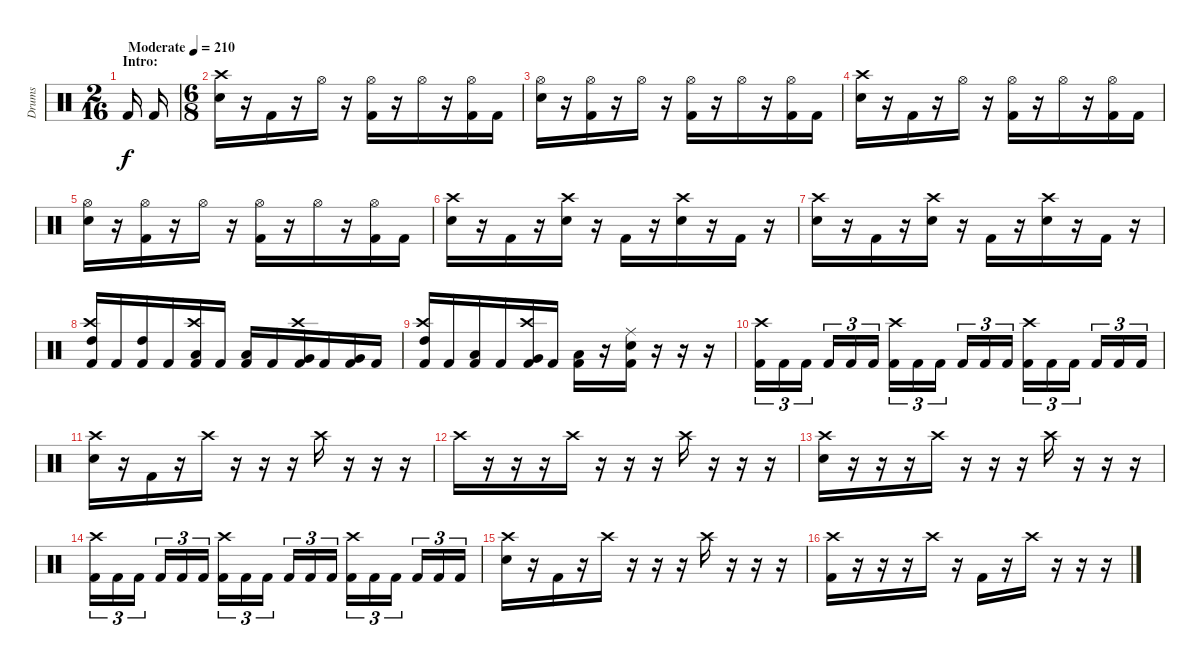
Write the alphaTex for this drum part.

\track ("Drums" "Drums") {instrument percussion}
\staff {score}
\articulation defaults
\ts (2 16)
\section ("" "Intro:")
\tempo (210 "Moderate")
\clef neutral
\ks c "Kick (hit) 2".16{dy f} "Kick (hit) 2".16
|
\ts (6 8)
("Crash high (hit)" "Electric Snare (hit)").16 r.16 "Kick (hit) 2".16 r.16 "Hi-Hat (open)".16 r.16 ("Hi-Hat (open)" "Kick (hit) 2").16 r.16 "Hi-Hat (open)".16 r.16 ("Hi-Hat (open)" "Kick (hit) 2").16 "Kick (hit) 2".16 |
("Hi-Hat (open)" "Electric Snare (hit)").16 r.16 ("Hi-Hat (open)" "Kick (hit) 2").16 r.16 "Hi-Hat (open)".16 r.16 ("Hi-Hat (open)" "Kick (hit) 2").16 r.16 "Hi-Hat (open)".16 r.16 ("Hi-Hat (open)" "Kick (hit) 2").16 "Kick (hit) 2".16 |
("Crash high (hit)" "Electric Snare (hit)").16 r.16 "Kick (hit) 2".16 r.16 "Hi-Hat (open)".16 r.16 ("Hi-Hat (open)" "Kick (hit) 2").16 r.16 "Hi-Hat (open)".16 r.16 ("Hi-Hat (open)" "Kick (hit) 2").16 "Kick (hit) 2".16 |
("Hi-Hat (open)" "Electric Snare (hit)").16 r.16 ("Hi-Hat (open)" "Kick (hit) 2").16 r.16 "Hi-Hat (open)".16 r.16 ("Hi-Hat (open)" "Kick (hit) 2").16 r.16 "Hi-Hat (open)".16 r.16 ("Hi-Hat (open)" "Kick (hit) 2").16 "Kick (hit) 2".16 |
("Crash high (hit)" "Electric Snare (hit)").16 r.16 "Kick (hit) 2".16 r.16 ("Crash high (hit)" "Electric Snare (hit)").16 r.16 "Kick (hit) 2".16 r.16 ("Crash high (hit)" "Electric Snare (hit)").16 r.16 "Kick (hit) 2".16 r.16 |
("Crash high (hit)" "Electric Snare (hit)").16 r.16 "Kick (hit) 2".16 r.16 ("Crash high (hit)" "Electric Snare (hit)").16 r.16 "Kick (hit) 2".16 r.16 ("Crash high (hit)" "Electric Snare (hit)").16 r.16 "Kick (hit) 2".16 r.16 |
("Crash high (hit)" "High Tom (hit)" "Kick (hit) 2").16 "Kick (hit) 2".16 ("High Tom (hit)" "Kick (hit) 2").16 "Kick (hit) 2".16 ("Crash high (hit)" "Low Tom (hit)" "Kick (hit) 2").16 "Kick (hit) 2".16 ("Low Tom (hit)" "Kick (hit) 2").16 "Kick (hit) 2".16 ("Crash high (hit)" "Very Low Tom (hit)" "Kick (hit) 2").16 "Kick (hit) 2".16 ("Very Low Tom (hit)" "Kick (hit) 2").16 "Kick (hit) 2".16 |
("Crash high (hit)" "High Tom (hit)" "Kick (hit) 2").16 "Kick (hit) 2".16 ("Low Tom (hit)" "Kick (hit) 2").16 "Kick (hit) 2".16 ("Crash high (hit)" "Very Low Tom (hit)" "Kick (hit) 2").16 "Kick (hit) 2".16 ("Low Floor Tom (hit)" "Kick (hit) 2").16 r.16 ("Ride (middle)" "Electric Snare (hit)" "Kick (hit) 2").16 r.16 r.16 r.16 |
("Crash high (hit)" "Kick (hit) 2").16{tu (3 2)} "Kick (hit) 2".16{tu (3 2)} "Kick (hit) 2".16{tu (3 2) beam splitsecondary} "Kick (hit) 2".16{tu (3 2)} "Kick (hit) 2".16{tu (3 2)} "Kick (hit) 2".16{tu (3 2) beam splitsecondary} ("Crash high (hit)" "Kick (hit) 2").16{tu (3 2)} "Kick (hit) 2".16{tu (3 2)} "Kick (hit) 2".16{tu (3 2)} "Kick (hit) 2".16{tu (3 2)} "Kick (hit) 2".16{tu (3 2)} "Kick (hit) 2".16{tu (3 2) beam splitsecondary} ("Crash high (hit)" "Kick (hit) 2").16{tu (3 2)} "Kick (hit) 2".16{tu (3 2)} "Kick (hit) 2".16{tu (3 2) beam splitsecondary} "Kick (hit) 2".16{tu (3 2)} "Kick (hit) 2".16{tu (3 2)} "Kick (hit) 2".16{tu (3 2)} |
("Crash high (hit)" "Electric Snare (hit)").16 r.16 "Kick (hit) 2".16 r.16 "Crash high (hit)".16 r.16 r.16 r.16 "Crash high (hit)".16 r.16 r.16 r.16 |
"Crash high (hit)".16 r.16 r.16 r.16 "Crash high (hit)".16 r.16 r.16 r.16 "Crash high (hit)".16 r.16 r.16 r.16 |
("Crash high (hit)" "Electric Snare (hit)").16 r.16 r.16 r.16 "Crash high (hit)".16 r.16 r.16 r.16 "Crash high (hit)".16 r.16 r.16 r.16 |
("Crash high (hit)" "Kick (hit) 2").16{tu (3 2)} "Kick (hit) 2".16{tu (3 2)} "Kick (hit) 2".16{tu (3 2) beam splitsecondary} "Kick (hit) 2".16{tu (3 2)} "Kick (hit) 2".16{tu (3 2)} "Kick (hit) 2".16{tu (3 2) beam splitsecondary} ("Crash high (hit)" "Kick (hit) 2").16{tu (3 2)} "Kick (hit) 2".16{tu (3 2)} "Kick (hit) 2".16{tu (3 2)} "Kick (hit) 2".16{tu (3 2)} "Kick (hit) 2".16{tu (3 2)} "Kick (hit) 2".16{tu (3 2) beam splitsecondary} ("Crash high (hit)" "Kick (hit) 2").16{tu (3 2)} "Kick (hit) 2".16{tu (3 2)} "Kick (hit) 2".16{tu (3 2) beam splitsecondary} "Kick (hit) 2".16{tu (3 2)} "Kick (hit) 2".16{tu (3 2)} "Kick (hit) 2".16{tu (3 2)} |
("Crash high (hit)" "Electric Snare (hit)").16 r.16 "Kick (hit) 2".16 r.16 "Crash high (hit)".16 r.16 r.16 r.16 "Crash high (hit)".16 r.16 r.16 r.16 |
("Crash high (hit)" "Kick (hit) 2").16 r.16 r.16 r.16 "Crash high (hit)".16 r.16 "Kick (hit) 2".16 r.16 "Crash high (hit)".16 r.16 r.16 r.16
